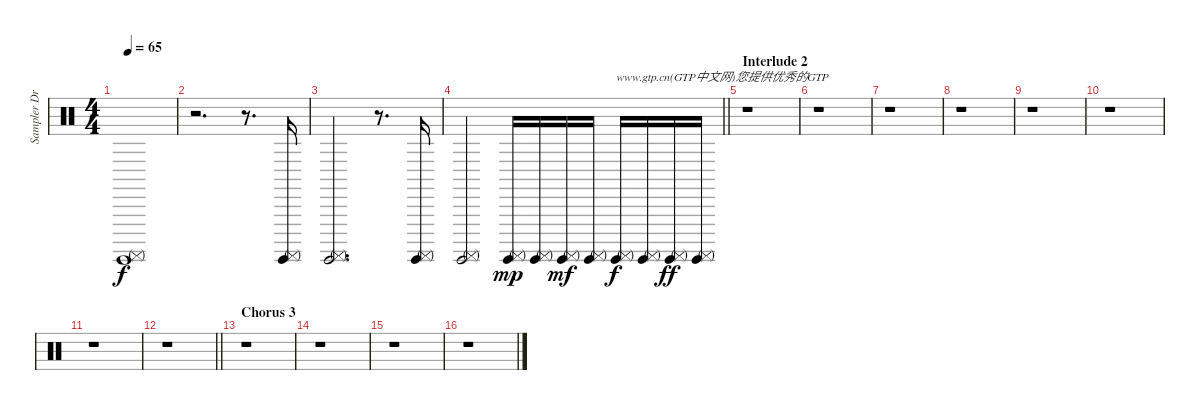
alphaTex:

\track ("Sampler Drums" "Sampler Dr") {instrument percussion}
\staff {score}
\articulation defaults
\ts (4 4)
\tempo 65
\clef neutral
\ks c
("Surdo (mute)" "Surdo (hit)").1{dy f} |
r.2{d} r.8{d} ("Surdo (mute)" "Surdo (hit)").16 |
("Surdo (mute)" "Surdo (hit)").2{d} r.8{d} ("Surdo (mute)" "Surdo (hit)").16 |
\barLineRight lightlight
("Surdo (mute)" "Surdo (hit)").2 ("Surdo (mute)" "Surdo (hit)").16{dy mp} ("Surdo (mute)" "Surdo (hit)").16 ("Surdo (mute)" "Surdo (hit)").16{dy mf} ("Surdo (mute)" "Surdo (hit)").16 ("Surdo (mute)" "Surdo (hit)").16{txt "www.gtp.cn(GTP中文网)您提供优秀的GTP" dy f} ("Surdo (mute)" "Surdo (hit)").16 ("Surdo (mute)" "Surdo (hit)").16{dy ff} ("Surdo (mute)" "Surdo (hit)").16 |
\section ("" "Interlude 2")
r.1 |
r.1 |
r.1 |
r.1 |
r.1 |
r.1 |
r.1 |
\barLineRight lightlight
r.1 |
\section ("" "Chorus 3")
r.1 |
r.1 |
r.1 |
r.1
